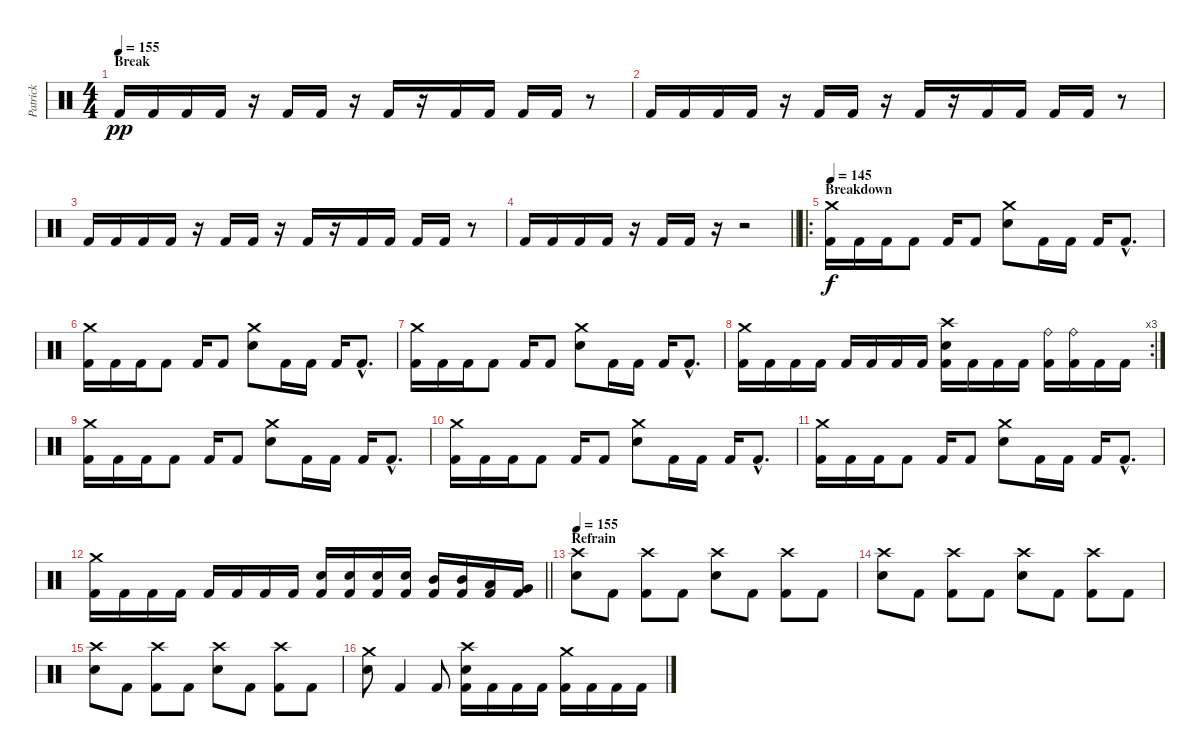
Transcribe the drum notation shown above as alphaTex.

\track ("Patrick" "Patrick") {instrument percussion}
\staff {score}
\articulation defaults
\ts (4 4)
\section ("" "Break")
\tempo 155
\clef neutral
\ks c "Kick (hit) 2".16{dy pp} "Kick (hit) 2".16 "Kick (hit) 2".16 "Kick (hit) 2".16
r.16 "Kick (hit) 2".16 "Kick (hit) 2".16 r.16 "Kick (hit) 2".16 r.16 "Kick (hit) 2".16 "Kick (hit) 2".16 "Kick (hit) 2".16 "Kick (hit) 2".16 r.8 |
"Kick (hit) 2".16 "Kick (hit) 2".16 "Kick (hit) 2".16 "Kick (hit) 2".16 r.16 "Kick (hit) 2".16 "Kick (hit) 2".16 r.16 "Kick (hit) 2".16 r.16 "Kick (hit) 2".16 "Kick (hit) 2".16 "Kick (hit) 2".16 "Kick (hit) 2".16 r.8 |
"Kick (hit) 2".16 "Kick (hit) 2".16 "Kick (hit) 2".16 "Kick (hit) 2".16 r.16 "Kick (hit) 2".16 "Kick (hit) 2".16 r.16 "Kick (hit) 2".16 r.16 "Kick (hit) 2".16 "Kick (hit) 2".16 "Kick (hit) 2".16 "Kick (hit) 2".16 r.8 |
\barLineRight lightlight "Kick (hit) 2".16 "Kick (hit) 2".16 "Kick (hit) 2".16 "Kick (hit) 2".16
r.16 "Kick (hit) 2".16 "Kick (hit) 2".16 r.16 r.2 |
\ro
\section ("" "Breakdown")
\tempo 145
("Crash medium (hit)" "Kick (hit) 2").16{dy f} "Kick (hit) 2".16 "Kick (hit) 2".16 "Kick (hit) 2".8 "Kick (hit) 2".16 "Kick (hit) 2".8 ("Crash medium (hit)" "Electric Snare (hit)").8 "Kick (hit) 2".16 "Kick (hit) 2".16 "Kick (hit) 2".16 "Kick (hit) 2"{hac}.8{d} |
("Crash medium (hit)" "Kick (hit) 2").16 "Kick (hit) 2".16 "Kick (hit) 2".16 "Kick (hit) 2".8 "Kick (hit) 2".16 "Kick (hit) 2".8 ("Crash medium (hit)" "Electric Snare (hit)").8 "Kick (hit) 2".16 "Kick (hit) 2".16 "Kick (hit) 2".16 "Kick (hit) 2"{hac}.8{d} |
("Crash medium (hit)" "Kick (hit) 2").16 "Kick (hit) 2".16 "Kick (hit) 2".16 "Kick (hit) 2".8 "Kick (hit) 2".16 "Kick (hit) 2".8 ("Crash medium (hit)" "Electric Snare (hit)").8 "Kick (hit) 2".16 "Kick (hit) 2".16 "Kick (hit) 2".16 "Kick (hit) 2"{hac}.8{d} |
\rc 3
("Crash medium (hit)" "Kick (hit) 2").16 "Kick (hit) 2".16 "Kick (hit) 2".16 "Kick (hit) 2".16 "Kick (hit) 2".16 "Kick (hit) 2".16 "Kick (hit) 2".16 "Kick (hit) 2".16 ("Crash high (hit)" "Electric Snare (hit)" "Kick (hit) 2").16 "Kick (hit) 2".16 "Kick (hit) 2".16 "Kick (hit) 2".16 ("Ride (bell)" "Kick (hit) 2").16 ("Ride (bell)" "Kick (hit) 2").16 "Kick (hit) 2".16 "Kick (hit) 2".16 |
("Crash medium (hit)" "Kick (hit) 2").16 "Kick (hit) 2".16 "Kick (hit) 2".16 "Kick (hit) 2".8 "Kick (hit) 2".16 "Kick (hit) 2".8 ("Crash medium (hit)" "Electric Snare (hit)").8 "Kick (hit) 2".16 "Kick (hit) 2".16 "Kick (hit) 2".16 "Kick (hit) 2"{hac}.8{d} |
("Crash medium (hit)" "Kick (hit) 2").16 "Kick (hit) 2".16 "Kick (hit) 2".16 "Kick (hit) 2".8 "Kick (hit) 2".16 "Kick (hit) 2".8 ("Crash medium (hit)" "Electric Snare (hit)").8 "Kick (hit) 2".16 "Kick (hit) 2".16 "Kick (hit) 2".16 "Kick (hit) 2"{hac}.8{d} |
("Crash medium (hit)" "Kick (hit) 2").16 "Kick (hit) 2".16 "Kick (hit) 2".16 "Kick (hit) 2".8 "Kick (hit) 2".16 "Kick (hit) 2".8 ("Crash medium (hit)" "Electric Snare (hit)").8 "Kick (hit) 2".16 "Kick (hit) 2".16 "Kick (hit) 2".16 "Kick (hit) 2"{hac}.8{d} |
\barLineRight lightlight
("Crash medium (hit)" "Kick (hit) 2").16 "Kick (hit) 2".16 "Kick (hit) 2".16 "Kick (hit) 2".16 "Kick (hit) 2".16 "Kick (hit) 2".16 "Kick (hit) 2".16 "Kick (hit) 2".16 ("Electric Snare (hit)" "Kick (hit) 2").16 ("Electric Snare (hit)" "Kick (hit) 2").16 ("Electric Snare (hit)" "Kick (hit) 2").16 ("Electric Snare (hit)" "Kick (hit) 2").16 ("Mid Tom (hit)" "Kick (hit) 2").16 ("Mid Tom (hit)" "Kick (hit) 2").16 ("Low Tom (hit)" "Kick (hit) 2").16 ("Very Low Tom (hit)" "Kick (hit) 2").16 |
\section ("" "Refrain")
\tempo 155
("Crash high (hit)" "Electric Snare (hit)").8 "Kick (hit) 2".8 ("Crash high (hit)" "Kick (hit) 2").8 "Kick (hit) 2".8 ("Crash high (hit)" "Electric Snare (hit)").8 "Kick (hit) 2".8 ("Crash high (hit)" "Kick (hit) 2").8 "Kick (hit) 2".8 |
("Crash high (hit)" "Electric Snare (hit)").8 "Kick (hit) 2".8 ("Crash high (hit)" "Kick (hit) 2").8 "Kick (hit) 2".8 ("Crash high (hit)" "Electric Snare (hit)").8 "Kick (hit) 2".8 ("Crash high (hit)" "Kick (hit) 2").8 "Kick (hit) 2".8 |
("Crash high (hit)" "Electric Snare (hit)").8 "Kick (hit) 2".8 ("Crash high (hit)" "Kick (hit) 2").8 "Kick (hit) 2".8 ("Crash high (hit)" "Electric Snare (hit)").8 "Kick (hit) 2".8 ("Crash high (hit)" "Kick (hit) 2").8 "Kick (hit) 2".8 |
("Crash medium (hit)" "Electric Snare (hit)").8 "Kick (hit) 2".4 "Kick (hit) 2".8 ("Crash high (hit)" "Electric Snare (hit)" "Kick (hit) 2").16 "Kick (hit) 2".16 "Kick (hit) 2".16 "Kick (hit) 2".16 ("Crash medium (hit)" "Kick (hit) 2").16 "Kick (hit) 2".16 "Kick (hit) 2".16 "Kick (hit) 2".16
